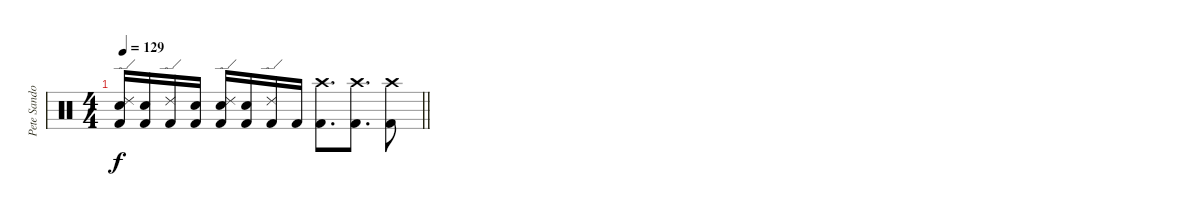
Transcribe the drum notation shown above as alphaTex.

\track ("Pete Sandoval " "Pete Sando") {instrument percussion}
\staff {score}
\articulation defaults
\ts (4 4)
\tempo 129
\clef neutral
\barLineRight lightlight
\ks c
("Kick (hit) 2" "Snare (hit) 2" "Ride (edge) 2").16{dy f} ("Kick (hit) 2" "Snare (hit) 2").16 ("Kick (hit) 2" "Ride (edge) 2").16 ("Kick (hit) 2" "Snare (hit) 2").16 ("Kick (hit) 2" "Snare (hit) 2" "Ride (edge) 2").16 ("Kick (hit) 2" "Snare (hit) 2").16 ("Kick (hit) 2" "Ride (edge) 2").16 "Kick (hit) 2".16 ("Kick (hit) 2" "Crash high (hit)").8{d} ("Kick (hit) 2" "Crash high (hit)").8{d} ("Kick (hit) 2" "Crash high (hit)").8
